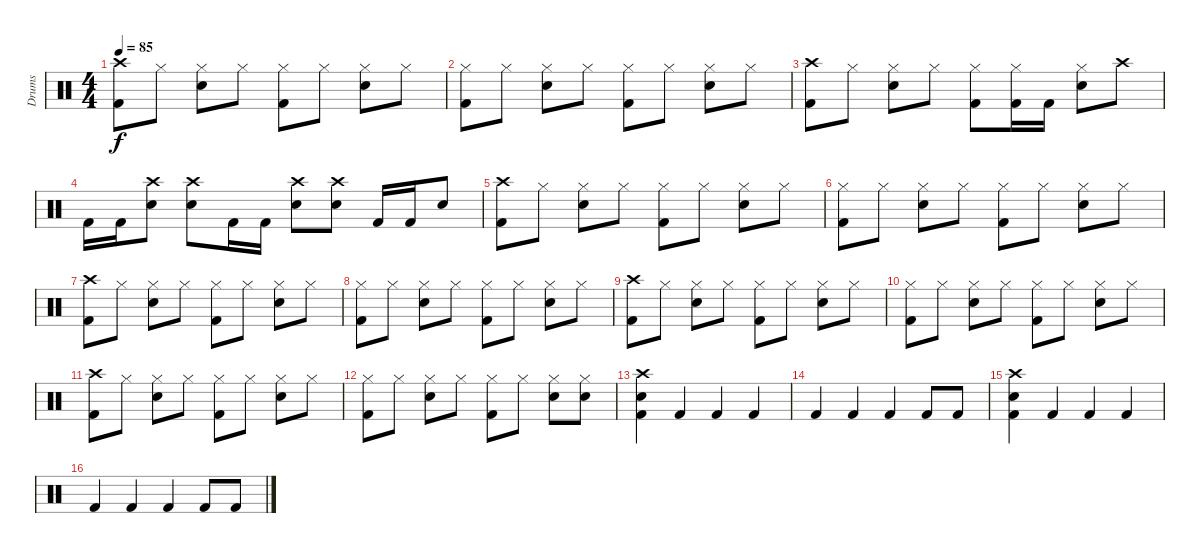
\track ("Drums" "Drums") {instrument percussion}
\staff {score}
\articulation defaults
\ts (4 4)
\tempo 85
\clef neutral
\ks c
("Crash high (hit)" "Kick (hit) 2").8{dy f} "Hi-Hat (closed)".8 ("Hi-Hat (closed)" "Snare (hit) 2").8 "Hi-Hat (closed)".8 ("Hi-Hat (closed)" "Kick (hit) 2").8 "Hi-Hat (closed)".8 ("Hi-Hat (closed)" "Snare (hit) 2").8 "Hi-Hat (closed)".8 |
("Hi-Hat (closed)" "Kick (hit) 2").8 "Hi-Hat (closed)".8 ("Hi-Hat (closed)" "Snare (hit) 2").8 "Hi-Hat (closed)".8 ("Hi-Hat (closed)" "Kick (hit) 2").8 "Hi-Hat (closed)".8 ("Hi-Hat (closed)" "Snare (hit) 2").8 "Hi-Hat (closed)".8 |
("Crash high (hit)" "Kick (hit) 2").8 "Hi-Hat (closed)".8 ("Hi-Hat (closed)" "Snare (hit) 2").8 "Hi-Hat (closed)".8 ("Hi-Hat (closed)" "Kick (hit) 2").8 ("Hi-Hat (closed)" "Kick (hit) 2").16 "Kick (hit) 2".16 ("Hi-Hat (closed)" "Snare (hit) 2").8 "Crash high (hit)".8 |
"Kick (hit) 2".16 "Kick (hit) 2".16 ("Crash high (hit)" "Snare (hit) 2").8 ("Crash high (hit)" "Snare (hit) 2").8 "Kick (hit) 2".16 "Kick (hit) 2".16 ("Crash high (hit)" "Snare (hit) 2").8 ("Crash high (hit)" "Snare (hit) 2").8 "Kick (hit) 2".16 "Kick (hit) 2".16 "Snare (hit) 2".8 |
("Crash high (hit)" "Kick (hit) 2").8 "Hi-Hat (closed)".8 ("Hi-Hat (closed)" "Snare (hit) 2").8 "Hi-Hat (closed)".8 ("Hi-Hat (closed)" "Kick (hit) 2").8 "Hi-Hat (closed)".8 ("Hi-Hat (closed)" "Snare (hit) 2").8 "Hi-Hat (closed)".8 |
("Hi-Hat (closed)" "Kick (hit) 2").8 "Hi-Hat (closed)".8 ("Hi-Hat (closed)" "Snare (hit) 2").8 "Hi-Hat (closed)".8 ("Hi-Hat (closed)" "Kick (hit) 2").8 "Hi-Hat (closed)".8 ("Hi-Hat (closed)" "Snare (hit) 2").8 "Hi-Hat (closed)".8 |
("Crash high (hit)" "Kick (hit) 2").8 "Hi-Hat (closed)".8 ("Hi-Hat (closed)" "Snare (hit) 2").8 "Hi-Hat (closed)".8 ("Hi-Hat (closed)" "Kick (hit) 2").8 "Hi-Hat (closed)".8 ("Hi-Hat (closed)" "Snare (hit) 2").8 "Hi-Hat (closed)".8 |
("Hi-Hat (closed)" "Kick (hit) 2").8 "Hi-Hat (closed)".8 ("Hi-Hat (closed)" "Snare (hit) 2").8 "Hi-Hat (closed)".8 ("Hi-Hat (closed)" "Kick (hit) 2").8 "Hi-Hat (closed)".8 ("Hi-Hat (closed)" "Snare (hit) 2").8 "Hi-Hat (closed)".8 |
("Crash high (hit)" "Kick (hit) 2").8 "Hi-Hat (closed)".8 ("Hi-Hat (closed)" "Snare (hit) 2").8 "Hi-Hat (closed)".8 ("Hi-Hat (closed)" "Kick (hit) 2").8 "Hi-Hat (closed)".8 ("Hi-Hat (closed)" "Snare (hit) 2").8 "Hi-Hat (closed)".8 |
("Hi-Hat (closed)" "Kick (hit) 2").8 "Hi-Hat (closed)".8 ("Hi-Hat (closed)" "Snare (hit) 2").8 "Hi-Hat (closed)".8 ("Hi-Hat (closed)" "Kick (hit) 2").8 "Hi-Hat (closed)".8 ("Hi-Hat (closed)" "Snare (hit) 2").8 "Hi-Hat (closed)".8 |
("Crash high (hit)" "Kick (hit) 2").8 "Hi-Hat (closed)".8 ("Hi-Hat (closed)" "Snare (hit) 2").8 "Hi-Hat (closed)".8 ("Hi-Hat (closed)" "Kick (hit) 2").8 "Hi-Hat (closed)".8 ("Hi-Hat (closed)" "Snare (hit) 2").8 "Hi-Hat (closed)".8 |
("Hi-Hat (closed)" "Kick (hit) 2").8 "Hi-Hat (closed)".8 ("Hi-Hat (closed)" "Snare (hit) 2").8 "Hi-Hat (closed)".8 ("Hi-Hat (closed)" "Kick (hit) 2").8 "Hi-Hat (closed)".8 ("Hi-Hat (closed)" "Snare (hit) 2").8 ("Hi-Hat (closed)" "Snare (hit) 2").8 |
("Crash high (hit)" "Snare (hit) 2" "Kick (hit) 2").4 "Kick (hit) 2".4 "Kick (hit) 2".4 "Kick (hit) 2".4 |
"Kick (hit) 2".4 "Kick (hit) 2".4 "Kick (hit) 2".4 "Kick (hit) 2".8 "Kick (hit) 2".8 |
("Crash high (hit)" "Snare (hit) 2" "Kick (hit) 2").4 "Kick (hit) 2".4 "Kick (hit) 2".4 "Kick (hit) 2".4 |
"Kick (hit) 2".4 "Kick (hit) 2".4 "Kick (hit) 2".4 "Kick (hit) 2".8 "Kick (hit) 2".8
